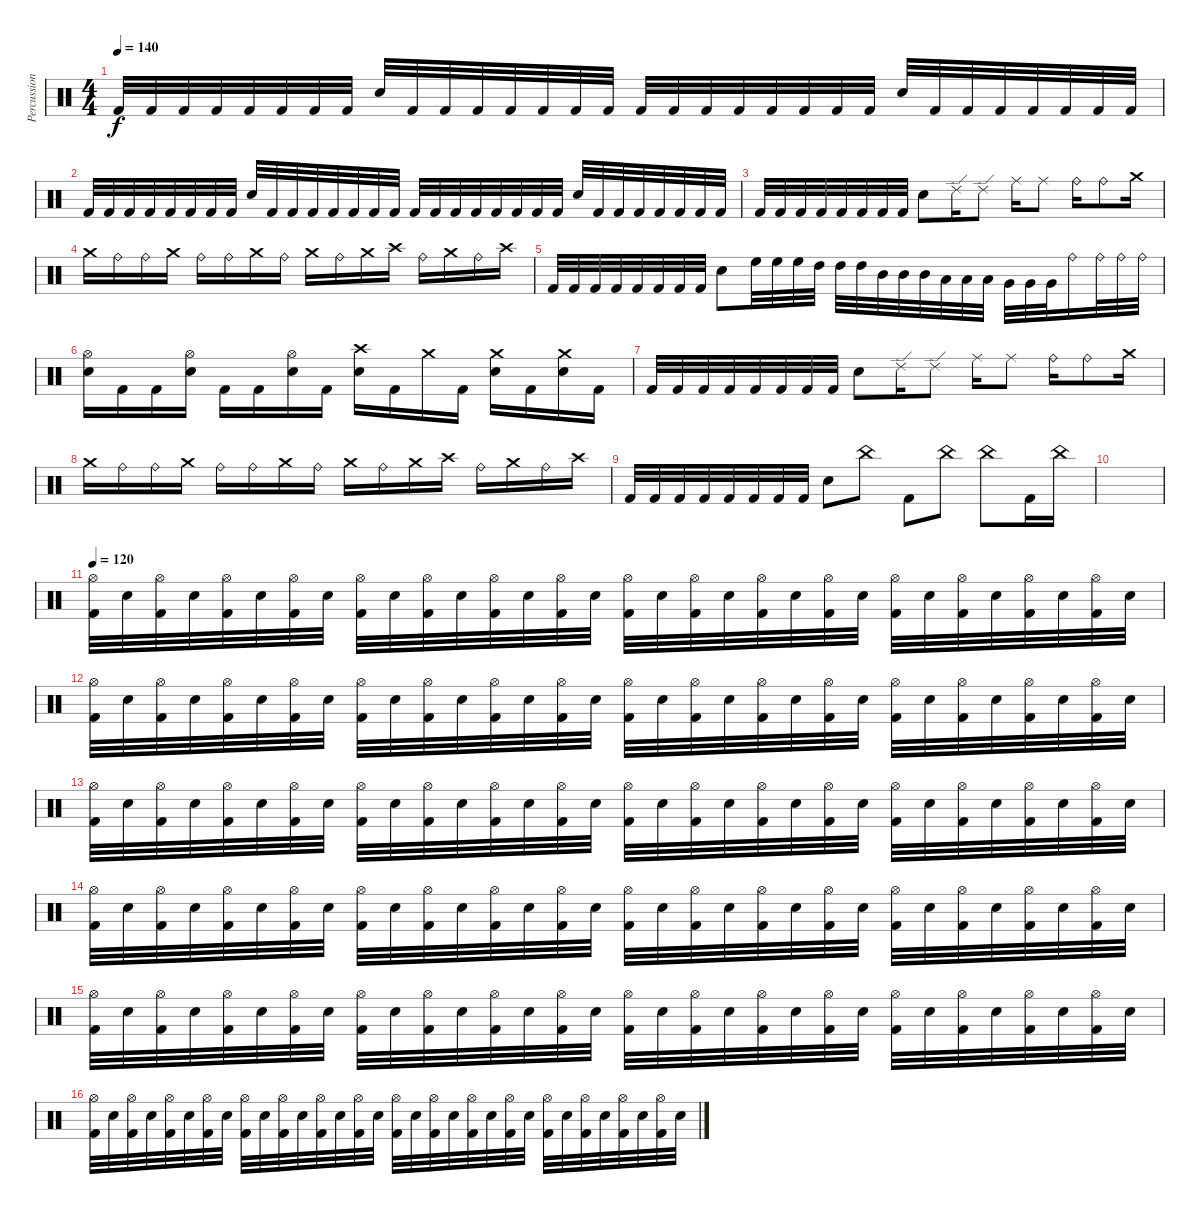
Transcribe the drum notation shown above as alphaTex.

\track ("Percussion" "Percussion") {instrument percussion}
\staff {score}
\articulation defaults
\ts (4 4)
\tempo 140
\clef neutral
\ks c "Kick (hit) 2".32{dy f} "Kick (hit) 2".32 "Kick (hit) 2".32 "Kick (hit) 2".32 "Kick (hit) 2".32 "Kick (hit) 2".32 "Kick (hit) 2".32 "Kick (hit) 2".32 "Snare (hit) 2".32 "Kick (hit) 2".32 "Kick (hit) 2".32 "Kick (hit) 2".32 "Kick (hit) 2".32 "Kick (hit) 2".32 "Kick (hit) 2".32 "Kick (hit) 2".32 "Kick (hit) 2".32 "Kick (hit) 2".32 "Kick (hit) 2".32 "Kick (hit) 2".32 "Kick (hit) 2".32 "Kick (hit) 2".32 "Kick (hit) 2".32 "Kick (hit) 2".32 "Snare (hit) 2".32 "Kick (hit) 2".32 "Kick (hit) 2".32 "Kick (hit) 2".32 "Kick (hit) 2".32 "Kick (hit) 2".32 "Kick (hit) 2".32 "Kick (hit) 2".32
|
"Kick (hit) 2".32 "Kick (hit) 2".32 "Kick (hit) 2".32 "Kick (hit) 2".32 "Kick (hit) 2".32 "Kick (hit) 2".32 "Kick (hit) 2".32 "Kick (hit) 2".32 "Snare (hit) 2".32 "Kick (hit) 2".32 "Kick (hit) 2".32 "Kick (hit) 2".32 "Kick (hit) 2".32 "Kick (hit) 2".32 "Kick (hit) 2".32 "Kick (hit) 2".32 "Kick (hit) 2".32 "Kick (hit) 2".32 "Kick (hit) 2".32 "Kick (hit) 2".32 "Kick (hit) 2".32 "Kick (hit) 2".32 "Kick (hit) 2".32 "Kick (hit) 2".32 "Snare (hit) 2".32 "Kick (hit) 2".32 "Kick (hit) 2".32 "Kick (hit) 2".32 "Kick (hit) 2".32 "Kick (hit) 2".32 "Kick (hit) 2".32 "Kick (hit) 2".32 |
"Kick (hit) 2".32 "Kick (hit) 2".32 "Kick (hit) 2".32 "Kick (hit) 2".32 "Kick (hit) 2".32 "Kick (hit) 2".32 "Kick (hit) 2".32 "Kick (hit) 2".32 "Snare (hit) 2".8 "Ride (edge) 2".16 "Ride (edge) 2".8 "Ride (middle)".16 "Ride (middle)".8 "Ride (bell)".16 "Ride (bell)".8 "Crash medium (hit)".16 |
"Crash medium (hit)".16 "Ride (bell)".16 "Ride (bell)".16 "Crash medium (hit)".16 "Ride (bell)".16 "Ride (bell)".16 "Crash medium (hit)".16 "Ride (bell)".16 "Crash medium (hit)".16 "Ride (bell)".16 "Crash medium (hit)".16 "Crash high (hit)".16 "Ride (bell)".16 "Crash medium (hit)".16 "Ride (bell)".16 "Crash high (hit)".16 |
"Kick (hit) 2".32 "Kick (hit) 2".32 "Kick (hit) 2".32 "Kick (hit) 2".32 "Kick (hit) 2".32 "Kick (hit) 2".32 "Kick (hit) 2".32 "Kick (hit) 2".32 "Snare (hit) 2".8 "High Floor Tom (hit)".32 "High Floor Tom (hit)".32 "High Floor Tom (hit)".32 "High Tom (hit)".32 "High Tom (hit)".32 "High Tom (hit)".32 "Mid Tom (hit)".32 "Mid Tom (hit)".32 "Mid Tom (hit)".32 "Low Tom (hit)".32 "Low Tom (hit)".32 "Low Tom (hit)".32 "Very Low Tom (hit)".32 "Very Low Tom (hit)".32 "Very Low Tom (hit)".32 "Ride (bell)".16 "Ride (bell)".32 "Ride (bell)".32 "Ride (bell)".32 |
("Hi-Hat (open)" "Snare (hit) 2").16 "Kick (hit) 2".16 "Kick (hit) 2".16 ("Hi-Hat (open)" "Snare (hit) 2").16 "Kick (hit) 2".16 "Kick (hit) 2".16 ("Hi-Hat (open)" "Snare (hit) 2").16 "Kick (hit) 2".16 ("Crash high (hit)" "Snare (hit) 2").16 "Kick (hit) 2".16 "Crash medium (hit)".16 "Kick (hit) 2".16 ("Crash medium (hit)" "Snare (hit) 2").16 "Kick (hit) 2".16 ("Crash medium (hit)" "Snare (hit) 2").16 "Kick (hit) 2".16 |
"Kick (hit) 2".32 "Kick (hit) 2".32 "Kick (hit) 2".32 "Kick (hit) 2".32 "Kick (hit) 2".32 "Kick (hit) 2".32 "Kick (hit) 2".32 "Kick (hit) 2".32 "Snare (hit) 2".8 "Ride (edge) 2".16 "Ride (edge) 2".8 "Ride (middle)".16 "Ride (middle)".8 "Ride (bell)".16 "Ride (bell)".8 "Crash medium (hit)".16 |
"Crash medium (hit)".16 "Ride (bell)".16 "Ride (bell)".16 "Crash medium (hit)".16 "Ride (bell)".16 "Ride (bell)".16 "Crash medium (hit)".16 "Ride (bell)".16 "Crash medium (hit)".16 "Ride (bell)".16 "Crash medium (hit)".16 "Crash high (hit)".16 "Ride (bell)".16 "Crash medium (hit)".16 "Ride (bell)".16 "Crash high (hit)".16 |
"Kick (hit) 2".32 "Kick (hit) 2".32 "Kick (hit) 2".32 "Kick (hit) 2".32 "Kick (hit) 2".32 "Kick (hit) 2".32 "Kick (hit) 2".32 "Kick (hit) 2".32 "Snare (hit) 2".8 "China (hit)".8 "Kick (hit) 2".8 "China (hit)".8 "China (hit)".8 "Kick (hit) 2".16 "China (hit)".16 |
|
\tempo 120
("Hi-Hat (open)" "Kick (hit) 2").32 "Snare (hit) 2".32 ("Hi-Hat (open)" "Kick (hit) 2").32 "Snare (hit) 2".32 ("Hi-Hat (open)" "Kick (hit) 2").32 "Snare (hit) 2".32 ("Hi-Hat (open)" "Kick (hit) 2").32 "Snare (hit) 2".32 ("Hi-Hat (open)" "Kick (hit) 2").32 "Snare (hit) 2".32 ("Hi-Hat (open)" "Kick (hit) 2").32 "Snare (hit) 2".32 ("Hi-Hat (open)" "Kick (hit) 2").32 "Snare (hit) 2".32 ("Hi-Hat (open)" "Kick (hit) 2").32 "Snare (hit) 2".32 ("Hi-Hat (open)" "Kick (hit) 2").32 "Snare (hit) 2".32 ("Hi-Hat (open)" "Kick (hit) 2").32 "Snare (hit) 2".32 ("Hi-Hat (open)" "Kick (hit) 2").32 "Snare (hit) 2".32 ("Hi-Hat (open)" "Kick (hit) 2").32 "Snare (hit) 2".32 ("Hi-Hat (open)" "Kick (hit) 2").32 "Snare (hit) 2".32 ("Hi-Hat (open)" "Kick (hit) 2").32 "Snare (hit) 2".32 ("Hi-Hat (open)" "Kick (hit) 2").32 "Snare (hit) 2".32 ("Hi-Hat (open)" "Kick (hit) 2").32 "Snare (hit) 2".32 |
("Hi-Hat (open)" "Kick (hit) 2").32 "Snare (hit) 2".32 ("Hi-Hat (open)" "Kick (hit) 2").32 "Snare (hit) 2".32 ("Hi-Hat (open)" "Kick (hit) 2").32 "Snare (hit) 2".32 ("Hi-Hat (open)" "Kick (hit) 2").32 "Snare (hit) 2".32 ("Hi-Hat (open)" "Kick (hit) 2").32 "Snare (hit) 2".32 ("Hi-Hat (open)" "Kick (hit) 2").32 "Snare (hit) 2".32 ("Hi-Hat (open)" "Kick (hit) 2").32 "Snare (hit) 2".32 ("Hi-Hat (open)" "Kick (hit) 2").32 "Snare (hit) 2".32 ("Hi-Hat (open)" "Kick (hit) 2").32 "Snare (hit) 2".32 ("Hi-Hat (open)" "Kick (hit) 2").32 "Snare (hit) 2".32 ("Hi-Hat (open)" "Kick (hit) 2").32 "Snare (hit) 2".32 ("Hi-Hat (open)" "Kick (hit) 2").32 "Snare (hit) 2".32 ("Hi-Hat (open)" "Kick (hit) 2").32 "Snare (hit) 2".32 ("Hi-Hat (open)" "Kick (hit) 2").32 "Snare (hit) 2".32 ("Hi-Hat (open)" "Kick (hit) 2").32 "Snare (hit) 2".32 ("Hi-Hat (open)" "Kick (hit) 2").32 "Snare (hit) 2".32 |
("Hi-Hat (open)" "Kick (hit) 2").32 "Snare (hit) 2".32 ("Hi-Hat (open)" "Kick (hit) 2").32 "Snare (hit) 2".32 ("Hi-Hat (open)" "Kick (hit) 2").32 "Snare (hit) 2".32 ("Hi-Hat (open)" "Kick (hit) 2").32 "Snare (hit) 2".32 ("Hi-Hat (open)" "Kick (hit) 2").32 "Snare (hit) 2".32 ("Hi-Hat (open)" "Kick (hit) 2").32 "Snare (hit) 2".32 ("Hi-Hat (open)" "Kick (hit) 2").32 "Snare (hit) 2".32 ("Hi-Hat (open)" "Kick (hit) 2").32 "Snare (hit) 2".32 ("Hi-Hat (open)" "Kick (hit) 2").32 "Snare (hit) 2".32 ("Hi-Hat (open)" "Kick (hit) 2").32 "Snare (hit) 2".32 ("Hi-Hat (open)" "Kick (hit) 2").32 "Snare (hit) 2".32 ("Hi-Hat (open)" "Kick (hit) 2").32 "Snare (hit) 2".32 ("Hi-Hat (open)" "Kick (hit) 2").32 "Snare (hit) 2".32 ("Hi-Hat (open)" "Kick (hit) 2").32 "Snare (hit) 2".32 ("Hi-Hat (open)" "Kick (hit) 2").32 "Snare (hit) 2".32 ("Hi-Hat (open)" "Kick (hit) 2").32 "Snare (hit) 2".32 |
("Hi-Hat (open)" "Kick (hit) 2").32 "Snare (hit) 2".32 ("Hi-Hat (open)" "Kick (hit) 2").32 "Snare (hit) 2".32 ("Hi-Hat (open)" "Kick (hit) 2").32 "Snare (hit) 2".32 ("Hi-Hat (open)" "Kick (hit) 2").32 "Snare (hit) 2".32 ("Hi-Hat (open)" "Kick (hit) 2").32 "Snare (hit) 2".32 ("Hi-Hat (open)" "Kick (hit) 2").32 "Snare (hit) 2".32 ("Hi-Hat (open)" "Kick (hit) 2").32 "Snare (hit) 2".32 ("Hi-Hat (open)" "Kick (hit) 2").32 "Snare (hit) 2".32 ("Hi-Hat (open)" "Kick (hit) 2").32 "Snare (hit) 2".32 ("Hi-Hat (open)" "Kick (hit) 2").32 "Snare (hit) 2".32 ("Hi-Hat (open)" "Kick (hit) 2").32 "Snare (hit) 2".32 ("Hi-Hat (open)" "Kick (hit) 2").32 "Snare (hit) 2".32 ("Hi-Hat (open)" "Kick (hit) 2").32 "Snare (hit) 2".32 ("Hi-Hat (open)" "Kick (hit) 2").32 "Snare (hit) 2".32 ("Hi-Hat (open)" "Kick (hit) 2").32 "Snare (hit) 2".32 ("Hi-Hat (open)" "Kick (hit) 2").32 "Snare (hit) 2".32 |
("Hi-Hat (open)" "Kick (hit) 2").32 "Snare (hit) 2".32 ("Hi-Hat (open)" "Kick (hit) 2").32 "Snare (hit) 2".32 ("Hi-Hat (open)" "Kick (hit) 2").32 "Snare (hit) 2".32 ("Hi-Hat (open)" "Kick (hit) 2").32 "Snare (hit) 2".32 ("Hi-Hat (open)" "Kick (hit) 2").32 "Snare (hit) 2".32 ("Hi-Hat (open)" "Kick (hit) 2").32 "Snare (hit) 2".32 ("Hi-Hat (open)" "Kick (hit) 2").32 "Snare (hit) 2".32 ("Hi-Hat (open)" "Kick (hit) 2").32 "Snare (hit) 2".32 ("Hi-Hat (open)" "Kick (hit) 2").32 "Snare (hit) 2".32 ("Hi-Hat (open)" "Kick (hit) 2").32 "Snare (hit) 2".32 ("Hi-Hat (open)" "Kick (hit) 2").32 "Snare (hit) 2".32 ("Hi-Hat (open)" "Kick (hit) 2").32 "Snare (hit) 2".32 ("Hi-Hat (open)" "Kick (hit) 2").32 "Snare (hit) 2".32 ("Hi-Hat (open)" "Kick (hit) 2").32 "Snare (hit) 2".32 ("Hi-Hat (open)" "Kick (hit) 2").32 "Snare (hit) 2".32 ("Hi-Hat (open)" "Kick (hit) 2").32 "Snare (hit) 2".32 |
("Hi-Hat (open)" "Kick (hit) 2").32 "Snare (hit) 2".32 ("Hi-Hat (open)" "Kick (hit) 2").32 "Snare (hit) 2".32 ("Hi-Hat (open)" "Kick (hit) 2").32 "Snare (hit) 2".32 ("Hi-Hat (open)" "Kick (hit) 2").32 "Snare (hit) 2".32 ("Hi-Hat (open)" "Kick (hit) 2").32 "Snare (hit) 2".32 ("Hi-Hat (open)" "Kick (hit) 2").32 "Snare (hit) 2".32 ("Hi-Hat (open)" "Kick (hit) 2").32 "Snare (hit) 2".32 ("Hi-Hat (open)" "Kick (hit) 2").32 "Snare (hit) 2".32 ("Hi-Hat (open)" "Kick (hit) 2").32 "Snare (hit) 2".32 ("Hi-Hat (open)" "Kick (hit) 2").32 "Snare (hit) 2".32 ("Hi-Hat (open)" "Kick (hit) 2").32 "Snare (hit) 2".32 ("Hi-Hat (open)" "Kick (hit) 2").32 "Snare (hit) 2".32 ("Hi-Hat (open)" "Kick (hit) 2").32 "Snare (hit) 2".32 ("Hi-Hat (open)" "Kick (hit) 2").32 "Snare (hit) 2".32 ("Hi-Hat (open)" "Kick (hit) 2").32 "Snare (hit) 2".32 ("Hi-Hat (open)" "Kick (hit) 2").32 "Snare (hit) 2".32
